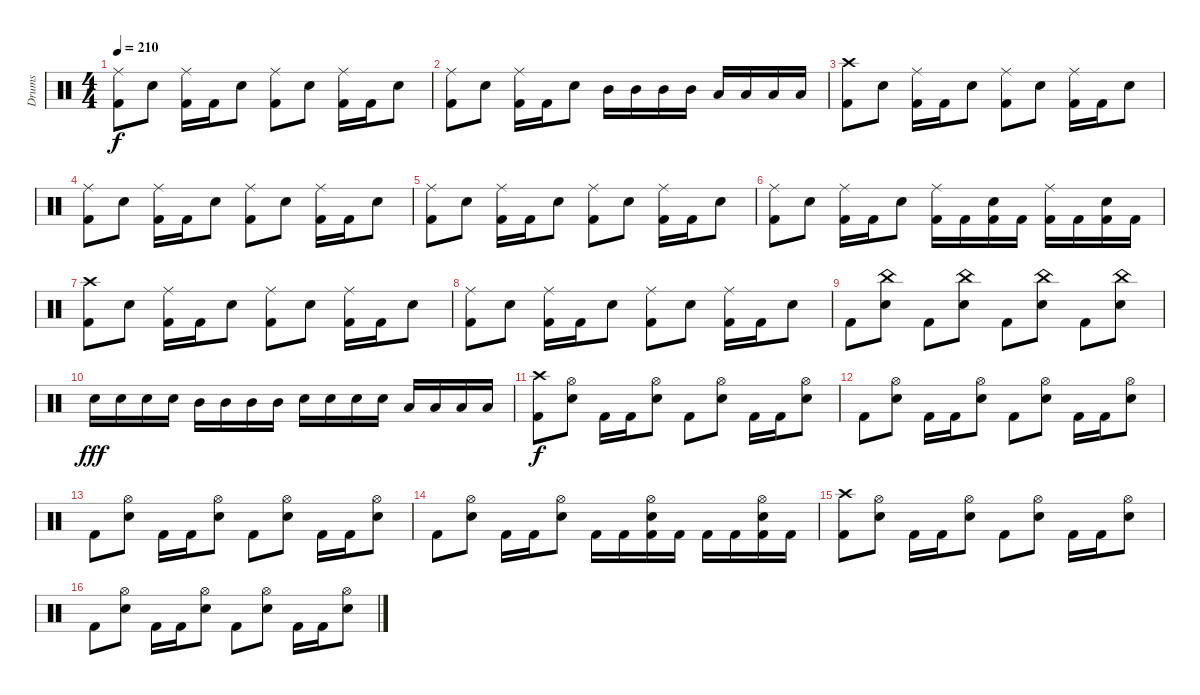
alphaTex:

\track ("Drums" "Drums") {instrument percussion}
\staff {score}
\articulation defaults
\ts (4 4)
\tempo 210
\clef neutral
\ks c
("Ride (middle)" "Kick (hit) 2").8{dy f} "Snare (hit) 2".8 ("Ride (middle)" "Kick (hit) 2").16 "Kick (hit) 2".16 "Snare (hit) 2".8 ("Ride (middle)" "Kick (hit) 2").8 "Snare (hit) 2".8 ("Ride (middle)" "Kick (hit) 2").16 "Kick (hit) 2".16 "Snare (hit) 2".8 |
("Ride (middle)" "Kick (hit) 2").8 "Snare (hit) 2".8 ("Ride (middle)" "Kick (hit) 2").16 "Kick (hit) 2".16 "Snare (hit) 2".8 "Mid Tom (hit)".16 "Mid Tom (hit)".16 "Mid Tom (hit)".16 "Mid Tom (hit)".16 "Low Tom (hit)".16 "Low Tom (hit)".16 "Low Tom (hit)".16 "Low Tom (hit)".16 |
("Crash high (hit)" "Kick (hit) 2").8 "Snare (hit) 2".8 ("Ride (middle)" "Kick (hit) 2").16 "Kick (hit) 2".16 "Snare (hit) 2".8 ("Ride (middle)" "Kick (hit) 2").8 "Snare (hit) 2".8 ("Ride (middle)" "Kick (hit) 2").16 "Kick (hit) 2".16 "Snare (hit) 2".8 |
("Ride (middle)" "Kick (hit) 2").8 "Snare (hit) 2".8 ("Ride (middle)" "Kick (hit) 2").16 "Kick (hit) 2".16 "Snare (hit) 2".8 ("Ride (middle)" "Kick (hit) 2").8 "Snare (hit) 2".8 ("Ride (middle)" "Kick (hit) 2").16 "Kick (hit) 2".16 "Snare (hit) 2".8 |
("Ride (middle)" "Kick (hit) 2").8 "Snare (hit) 2".8 ("Ride (middle)" "Kick (hit) 2").16 "Kick (hit) 2".16 "Snare (hit) 2".8 ("Ride (middle)" "Kick (hit) 2").8 "Snare (hit) 2".8 ("Ride (middle)" "Kick (hit) 2").16 "Kick (hit) 2".16 "Snare (hit) 2".8 |
("Ride (middle)" "Kick (hit) 2").8 "Snare (hit) 2".8 ("Ride (middle)" "Kick (hit) 2").16 "Kick (hit) 2".16 "Snare (hit) 2".8 ("Ride (middle)" "Kick (hit) 2").16 "Kick (hit) 2".16 ("Snare (hit) 2" "Kick (hit) 2").16 "Kick (hit) 2".16 ("Ride (middle)" "Kick (hit) 2").16 "Kick (hit) 2".16 ("Snare (hit) 2" "Kick (hit) 2").16 "Kick (hit) 2".16 |
("Crash high (hit)" "Kick (hit) 2").8 "Snare (hit) 2".8 ("Ride (middle)" "Kick (hit) 2").16 "Kick (hit) 2".16 "Snare (hit) 2".8 ("Ride (middle)" "Kick (hit) 2").8 "Snare (hit) 2".8 ("Ride (middle)" "Kick (hit) 2").16 "Kick (hit) 2".16 "Snare (hit) 2".8 |
("Ride (middle)" "Kick (hit) 2").8 "Snare (hit) 2".8 ("Ride (middle)" "Kick (hit) 2").16 "Kick (hit) 2".16 "Snare (hit) 2".8 ("Ride (middle)" "Kick (hit) 2").8 "Snare (hit) 2".8 ("Ride (middle)" "Kick (hit) 2").16 "Kick (hit) 2".16 "Snare (hit) 2".8 |
"Kick (hit) 2".8 ("China (hit)" "Snare (hit) 2").8 "Kick (hit) 2".8 ("China (hit)" "Snare (hit) 2").8 "Kick (hit) 2".8 ("China (hit)" "Snare (hit) 2").8 "Kick (hit) 2".8 ("China (hit)" "Snare (hit) 2").8 |
"Snare (hit) 2".16{dy fff} "Snare (hit) 2".16 "Snare (hit) 2".16 "Snare (hit) 2".16 "Mid Tom (hit)".16 "Mid Tom (hit)".16 "Mid Tom (hit)".16 "Mid Tom (hit)".16 "Snare (hit) 2".16 "Snare (hit) 2".16 "Snare (hit) 2".16 "Snare (hit) 2".16 "Low Tom (hit)".16 "Low Tom (hit)".16 "Low Tom (hit)".16 "Low Tom (hit)".16 |
("Crash high (hit)" "Kick (hit) 2").8{dy f} ("Hi-Hat (open)" "Snare (hit) 2").8 "Kick (hit) 2".16 "Kick (hit) 2".16 ("Hi-Hat (open)" "Snare (hit) 2").8 "Kick (hit) 2".8 ("Hi-Hat (open)" "Snare (hit) 2").8 "Kick (hit) 2".16 "Kick (hit) 2".16 ("Hi-Hat (open)" "Snare (hit) 2").8 |
"Kick (hit) 2".8 ("Hi-Hat (open)" "Snare (hit) 2").8 "Kick (hit) 2".16 "Kick (hit) 2".16 ("Hi-Hat (open)" "Snare (hit) 2").8 "Kick (hit) 2".8 ("Hi-Hat (open)" "Snare (hit) 2").8 "Kick (hit) 2".16 "Kick (hit) 2".16 ("Hi-Hat (open)" "Snare (hit) 2").8 |
"Kick (hit) 2".8 ("Hi-Hat (open)" "Snare (hit) 2").8 "Kick (hit) 2".16 "Kick (hit) 2".16 ("Hi-Hat (open)" "Snare (hit) 2").8 "Kick (hit) 2".8 ("Hi-Hat (open)" "Snare (hit) 2").8 "Kick (hit) 2".16 "Kick (hit) 2".16 ("Hi-Hat (open)" "Snare (hit) 2").8 |
"Kick (hit) 2".8 ("Hi-Hat (open)" "Snare (hit) 2").8 "Kick (hit) 2".16 "Kick (hit) 2".16 ("Hi-Hat (open)" "Snare (hit) 2").8 "Kick (hit) 2".16 "Kick (hit) 2".16 ("Hi-Hat (open)" "Snare (hit) 2" "Kick (hit) 2").16 "Kick (hit) 2".16 "Kick (hit) 2".16 "Kick (hit) 2".16 ("Hi-Hat (open)" "Snare (hit) 2" "Kick (hit) 2").16 "Kick (hit) 2".16 |
("Crash high (hit)" "Kick (hit) 2").8 ("Hi-Hat (open)" "Snare (hit) 2").8 "Kick (hit) 2".16 "Kick (hit) 2".16 ("Hi-Hat (open)" "Snare (hit) 2").8 "Kick (hit) 2".8 ("Hi-Hat (open)" "Snare (hit) 2").8 "Kick (hit) 2".16 "Kick (hit) 2".16 ("Hi-Hat (open)" "Snare (hit) 2").8 |
"Kick (hit) 2".8 ("Hi-Hat (open)" "Snare (hit) 2").8 "Kick (hit) 2".16 "Kick (hit) 2".16 ("Hi-Hat (open)" "Snare (hit) 2").8 "Kick (hit) 2".8 ("Hi-Hat (open)" "Snare (hit) 2").8 "Kick (hit) 2".16 "Kick (hit) 2".16 ("Hi-Hat (open)" "Snare (hit) 2").8
